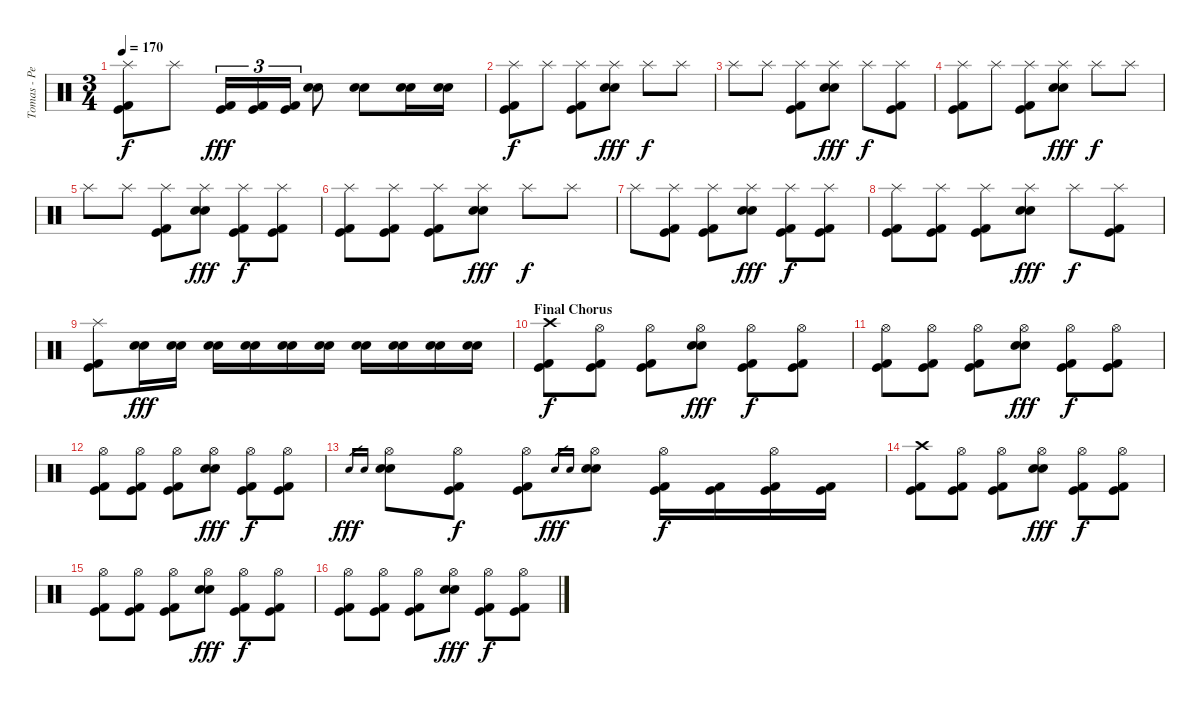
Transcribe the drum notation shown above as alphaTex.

\track ("Tomas - Percussions" "Tomas - Pe") {instrument percussion}
\staff {score}
\articulation defaults
\ts (3 4)
\tempo 170
\clef neutral
\ks c
("Splash (hit)" "Kick (hit)" "Kick (hit) 2").8{dy f} "Splash (hit)".8 ("Kick (hit)" "Kick (hit) 2").16{tu (3 2) dy fff} ("Kick (hit)" "Kick (hit) 2").16{tu (3 2)} ("Kick (hit)" "Kick (hit) 2").16{tu (3 2)} ("Electric Snare (hit)" "Electric Snare (hit)").8 ("Electric Snare (hit)" "Electric Snare (hit)").8 ("Electric Snare (hit)" "Electric Snare (hit)").16 ("Electric Snare (hit)" "Electric Snare (hit)").16 |
("Splash (hit)" "Kick (hit)" "Kick (hit) 2").8{dy f} "Splash (hit)".8 ("Splash (hit)" "Kick (hit)" "Kick (hit) 2").8 ("Splash (hit)" "Electric Snare (hit)" "Electric Snare (hit)").8{dy fff} "Splash (hit)".8{dy f} "Splash (hit)".8 |
"Splash (hit)".8 "Splash (hit)".8 ("Splash (hit)" "Kick (hit)" "Kick (hit) 2").8 ("Splash (hit)" "Electric Snare (hit)" "Electric Snare (hit)").8{dy fff} "Splash (hit)".8{dy f} ("Splash (hit)" "Kick (hit)" "Kick (hit) 2").8 |
("Splash (hit)" "Kick (hit)" "Kick (hit) 2").8 "Splash (hit)".8 ("Splash (hit)" "Kick (hit)" "Kick (hit) 2").8 ("Splash (hit)" "Electric Snare (hit)" "Electric Snare (hit)").8{dy fff} "Splash (hit)".8{dy f} "Splash (hit)".8 |
"Splash (hit)".8 "Splash (hit)".8 ("Splash (hit)" "Kick (hit)" "Kick (hit) 2").8 ("Splash (hit)" "Electric Snare (hit)" "Electric Snare (hit)").8{dy fff} ("Splash (hit)" "Kick (hit)" "Kick (hit) 2").8{dy f} ("Splash (hit)" "Kick (hit)" "Kick (hit) 2").8 |
("Splash (hit)" "Kick (hit)" "Kick (hit) 2").8 ("Splash (hit)" "Kick (hit)" "Kick (hit) 2").8 ("Splash (hit)" "Kick (hit)" "Kick (hit) 2").8 ("Splash (hit)" "Electric Snare (hit)" "Electric Snare (hit)").8{dy fff} "Splash (hit)".8{dy f} "Splash (hit)".8 |
"Splash (hit)".8 ("Splash (hit)" "Kick (hit)" "Kick (hit) 2").8 ("Splash (hit)" "Kick (hit)" "Kick (hit) 2").8 ("Splash (hit)" "Electric Snare (hit)" "Electric Snare (hit)").8{dy fff} ("Splash (hit)" "Kick (hit)" "Kick (hit) 2").8{dy f} ("Splash (hit)" "Kick (hit)" "Kick (hit) 2").8 |
("Splash (hit)" "Kick (hit)" "Kick (hit) 2").8 ("Splash (hit)" "Kick (hit)" "Kick (hit) 2").8 ("Splash (hit)" "Kick (hit)" "Kick (hit) 2").8 ("Splash (hit)" "Electric Snare (hit)" "Electric Snare (hit)").8{dy fff} "Splash (hit)".8{dy f} ("Splash (hit)" "Kick (hit)" "Kick (hit) 2").8 |
("Splash (hit)" "Kick (hit)" "Kick (hit) 2").8 ("Electric Snare (hit)" "Electric Snare (hit)").16{dy fff} ("Electric Snare (hit)" "Electric Snare (hit)").16 ("Electric Snare (hit)" "Electric Snare (hit)").16 ("Electric Snare (hit)" "Electric Snare (hit)").16 ("Electric Snare (hit)" "Electric Snare (hit)").16 ("Electric Snare (hit)" "Electric Snare (hit)").16 ("Electric Snare (hit)" "Electric Snare (hit)").16 ("Electric Snare (hit)" "Electric Snare (hit)").16 ("Electric Snare (hit)" "Electric Snare (hit)").16 ("Electric Snare (hit)" "Electric Snare (hit)").16 |
\section ("" "Final Chorus")
("Crash high (hit)" "Kick (hit)" "Kick (hit) 2").8{dy f} ("Hi-Hat (open)" "Kick (hit)" "Kick (hit) 2").8 ("Hi-Hat (open)" "Kick (hit)" "Kick (hit) 2").8 ("Hi-Hat (open)" "Electric Snare (hit)" "Electric Snare (hit)").8{dy fff} ("Hi-Hat (open)" "Kick (hit)" "Kick (hit) 2").8{dy f} ("Hi-Hat (open)" "Kick (hit)" "Kick (hit) 2").8 |
("Hi-Hat (open)" "Kick (hit)" "Kick (hit) 2").8 ("Hi-Hat (open)" "Kick (hit)" "Kick (hit) 2").8 ("Hi-Hat (open)" "Kick (hit)" "Kick (hit) 2").8 ("Hi-Hat (open)" "Electric Snare (hit)" "Electric Snare (hit)").8{dy fff} ("Hi-Hat (open)" "Kick (hit)" "Kick (hit) 2").8{dy f} ("Hi-Hat (open)" "Kick (hit)" "Kick (hit) 2").8 |
("Hi-Hat (open)" "Kick (hit)" "Kick (hit) 2").8 ("Hi-Hat (open)" "Kick (hit)" "Kick (hit) 2").8 ("Hi-Hat (open)" "Kick (hit)" "Kick (hit) 2").8 ("Hi-Hat (open)" "Electric Snare (hit)" "Electric Snare (hit)").8{dy fff} ("Hi-Hat (open)" "Kick (hit)" "Kick (hit) 2").8{dy f} ("Hi-Hat (open)" "Kick (hit)" "Kick (hit) 2").8 |
"Electric Snare (hit)".16{gr dy fff} "Electric Snare (hit)".16{gr} ("Hi-Hat (open)" "Electric Snare (hit)" "Electric Snare (hit)").8 ("Hi-Hat (open)" "Kick (hit)" "Kick (hit) 2").8{dy f} ("Hi-Hat (open)" "Kick (hit)" "Kick (hit) 2").8 "Electric Snare (hit)".16{gr dy fff} "Electric Snare (hit)".16{gr} ("Hi-Hat (open)" "Electric Snare (hit)" "Electric Snare (hit)").8 ("Hi-Hat (open)" "Kick (hit)" "Kick (hit) 2").16{dy f} ("Kick (hit)" "Kick (hit) 2").16 ("Hi-Hat (open)" "Kick (hit)" "Kick (hit) 2").16 ("Kick (hit)" "Kick (hit) 2").16 |
("Crash high (hit)" "Kick (hit)" "Kick (hit) 2").8 ("Hi-Hat (open)" "Kick (hit)" "Kick (hit) 2").8 ("Hi-Hat (open)" "Kick (hit)" "Kick (hit) 2").8 ("Hi-Hat (open)" "Electric Snare (hit)" "Electric Snare (hit)").8{dy fff} ("Hi-Hat (open)" "Kick (hit)" "Kick (hit) 2").8{dy f} ("Hi-Hat (open)" "Kick (hit)" "Kick (hit) 2").8 |
("Hi-Hat (open)" "Kick (hit)" "Kick (hit) 2").8 ("Hi-Hat (open)" "Kick (hit)" "Kick (hit) 2").8 ("Hi-Hat (open)" "Kick (hit)" "Kick (hit) 2").8 ("Hi-Hat (open)" "Electric Snare (hit)" "Electric Snare (hit)").8{dy fff} ("Hi-Hat (open)" "Kick (hit)" "Kick (hit) 2").8{dy f} ("Hi-Hat (open)" "Kick (hit)" "Kick (hit) 2").8 |
("Hi-Hat (open)" "Kick (hit)" "Kick (hit) 2").8 ("Hi-Hat (open)" "Kick (hit)" "Kick (hit) 2").8 ("Hi-Hat (open)" "Kick (hit)" "Kick (hit) 2").8 ("Hi-Hat (open)" "Electric Snare (hit)" "Electric Snare (hit)").8{dy fff} ("Hi-Hat (open)" "Kick (hit)" "Kick (hit) 2").8{dy f} ("Hi-Hat (open)" "Kick (hit)" "Kick (hit) 2").8
